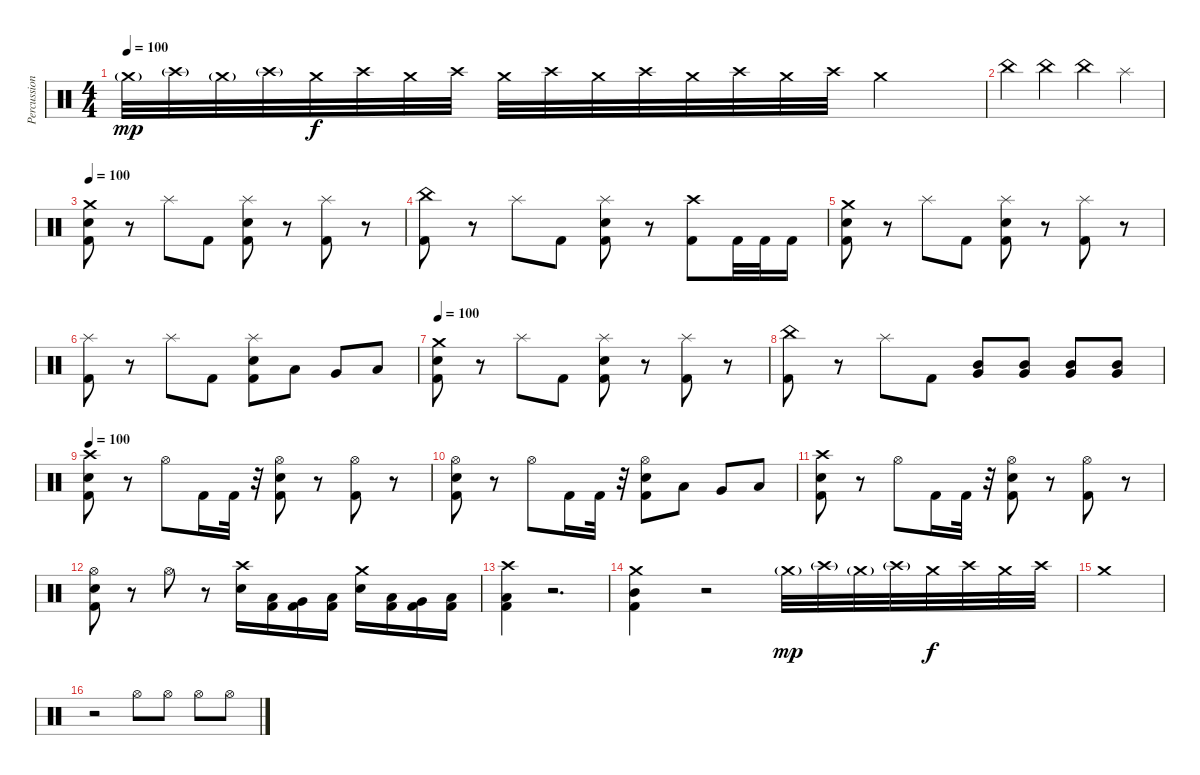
\track ("Percussion" "Percussion") {instrument percussion}
\staff {score}
\articulation defaults
\ts (4 4)
\tempo 100
\clef neutral
\ks c "Crash medium (hit)"{g}.32{dy mp} "Crash high (hit)"{g}.32 "Crash medium (hit)"{g}.32 "Crash high (hit)"{g}.32 "Crash medium (hit)".32{dy f} "Crash high (hit)".32 "Crash medium (hit)".32 "Crash high (hit)".32 "Crash medium (hit)".32 "Crash high (hit)".32 "Crash medium (hit)".32 "Crash high (hit)".32 "Crash medium (hit)".32 "Crash high (hit)".32 "Crash medium (hit)".32 "Crash high (hit)".32 "Crash medium (hit)".2
|
"China (hit)".4 "China (hit)".4 "China (hit)".4 "Splash (hit)".4 |
\tempo 100
("Crash medium (hit)" "Snare (hit) 2" "Kick (hit) 2").8 r.8 "Splash (hit)".8 "Kick (hit) 2".8 ("Splash (hit)" "Snare (hit) 2" "Kick (hit) 2").8 r.8 ("Splash (hit)" "Kick (hit) 2").8 r.8 |
("China (hit)" "Kick (hit) 2").8 r.8 "Splash (hit)".8 "Kick (hit) 2".8 ("Splash (hit)" "Snare (hit) 2" "Kick (hit) 2").8 r.8 ("Crash high (hit)" "Kick (hit) 2").8 "Kick (hit) 2".32 "Kick (hit) 2".32 "Kick (hit) 2".16 |
("Crash medium (hit)" "Snare (hit) 2" "Kick (hit) 2").8 r.8 "Splash (hit)".8 "Kick (hit) 2".8 ("Splash (hit)" "Snare (hit) 2" "Kick (hit) 2").8 r.8 ("Splash (hit)" "Kick (hit) 2").8 r.8 |
("Splash (hit)" "Kick (hit) 2").8 r.8 "Splash (hit)".8 "Kick (hit) 2".8 ("Splash (hit)" "Snare (hit) 2" "Kick (hit) 2").8 "Low Tom (hit)".8 "Very Low Tom (hit)".8 "Low Floor Tom (hit)".8 |
\tempo 100
("Crash medium (hit)" "Snare (hit) 2" "Kick (hit) 2").8 r.8 "Splash (hit)".8 "Kick (hit) 2".8 ("Splash (hit)" "Snare (hit) 2" "Kick (hit) 2").8 r.8 ("Splash (hit)" "Kick (hit) 2").8 r.8 |
("China (hit)" "Kick (hit) 2").8 r.8 "Splash (hit)".8 "Kick (hit) 2".8 ("Mid Tom (hit)" "Very Low Tom (hit)").8 ("Mid Tom (hit)" "Very Low Tom (hit)").8 ("Mid Tom (hit)" "Very Low Tom (hit)").8 ("Mid Tom (hit)" "Very Low Tom (hit)").8 |
\tempo 100
("Crash high (hit)" "Snare (hit) 2" "Kick (hit) 2").8 r.8 "Hi-Hat (open)".8 "Kick (hit) 2".16 "Kick (hit) 2".32 r.32 ("Hi-Hat (open)" "Snare (hit) 2" "Kick (hit) 2").8 r.8 ("Hi-Hat (open)" "Kick (hit) 2").8 r.8 |
("Hi-Hat (open)" "Snare (hit) 2" "Kick (hit) 2").8 r.8 "Hi-Hat (open)".8 "Kick (hit) 2".16 "Kick (hit) 2".32 r.32 ("Hi-Hat (open)" "Snare (hit) 2" "Kick (hit) 2").8 "Low Tom (hit)".8 "Very Low Tom (hit)".8 "Low Floor Tom (hit)".8 |
("Crash high (hit)" "Snare (hit) 2" "Kick (hit) 2").8 r.8 "Hi-Hat (open)".8 "Kick (hit) 2".16 "Kick (hit) 2".32 r.32 ("Hi-Hat (open)" "Snare (hit) 2" "Kick (hit) 2").8 r.8 ("Hi-Hat (open)" "Kick (hit) 2").8 r.8 |
("Hi-Hat (open)" "Snare (hit) 2" "Kick (hit) 2").8 r.8 "Hi-Hat (open)".8 r.8 ("Crash high (hit)" "Snare (hit) 2").16 ("Low Tom (hit)" "Kick (hit) 2").16 ("Very Low Tom (hit)" "Kick (hit) 2").16 ("Low Floor Tom (hit)" "Kick (hit) 2").16 ("Crash medium (hit)" "Snare (hit) 2").16 ("Low Tom (hit)" "Kick (hit) 2").16 ("Very Low Tom (hit)" "Kick (hit) 2").16 ("Low Floor Tom (hit)" "Kick (hit) 2").16 |
("Crash high (hit)" "Low Tom (hit)" "Kick (hit) 2").4 r.2{d} |
("Crash medium (hit)" "Mid Tom (hit)" "Kick (hit) 2").4 r.2 "Crash medium (hit)"{g}.32{dy mp} "Crash high (hit)"{g}.32 "Crash medium (hit)"{g}.32 "Crash high (hit)"{g}.32 "Crash medium (hit)".32{dy f} "Crash high (hit)".32 "Crash medium (hit)".32 "Crash high (hit)".32 |
"Crash medium (hit)".1 |
r.2 "Hi-Hat (open)".8 "Hi-Hat (open)".8 "Hi-Hat (open)".8 "Hi-Hat (open)".8
